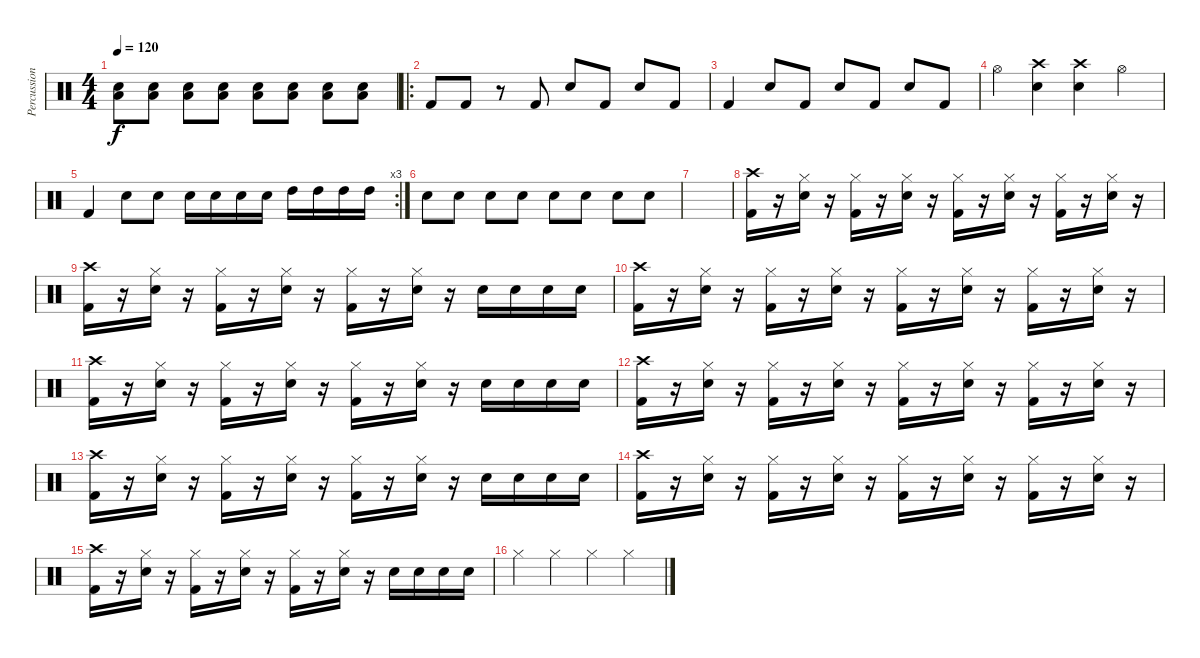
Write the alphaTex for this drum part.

\track ("Percussions" "Percussion") {instrument percussion}
\staff {score}
\articulation defaults
\ts (4 4)
\tempo 120
\clef neutral
\ks c
("Electric Snare (hit)" "Low Tom (hit)").8{dy f} ("Electric Snare (hit)" "Low Tom (hit)").8 ("Electric Snare (hit)" "Low Tom (hit)").8 ("Electric Snare (hit)" "Low Tom (hit)").8 ("Electric Snare (hit)" "Low Tom (hit)").8 ("Electric Snare (hit)" "Low Tom (hit)").8 ("Electric Snare (hit)" "Low Tom (hit)").8 ("Electric Snare (hit)" "Low Tom (hit)").8 |
\ro "Kick (hit) 2".8 "Kick (hit) 2".8
r.8 "Kick (hit) 2".8 "Electric Snare (hit)".8 "Kick (hit) 2".8 "Electric Snare (hit)".8 "Kick (hit) 2".8 |
"Kick (hit) 2".4 "Electric Snare (hit)".8 "Kick (hit) 2".8 "Electric Snare (hit)".8 "Kick (hit) 2".8 "Electric Snare (hit)".8 "Kick (hit) 2".8 |
"Hi-Hat (open)".4 ("Crash high (hit)" "Electric Snare (hit)").4 ("Crash high (hit)" "Electric Snare (hit)").4 "Hi-Hat (open)".4 |
\rc 3 "Kick (hit) 2".4 "Electric Snare (hit)".8 "Electric Snare (hit)".8 "Electric Snare (hit)".16 "Electric Snare (hit)".16 "Electric Snare (hit)".16 "Electric Snare (hit)".16 "High Tom (hit)".16 "High Tom (hit)".16 "High Tom (hit)".16 "High Tom (hit)".16
|
"Electric Snare (hit)".8 "Electric Snare (hit)".8 "Electric Snare (hit)".8 "Electric Snare (hit)".8 "Electric Snare (hit)".8 "Electric Snare (hit)".8 "Electric Snare (hit)".8 "Electric Snare (hit)".8 |
|
("Crash high (hit)" "Kick (hit) 2").16 r.16 ("Hi-Hat (closed)" "Electric Snare (hit)").16 r.16 ("Hi-Hat (closed)" "Kick (hit) 2").16 r.16 ("Hi-Hat (closed)" "Electric Snare (hit)").16 r.16 ("Hi-Hat (closed)" "Kick (hit) 2").16 r.16 ("Hi-Hat (closed)" "Electric Snare (hit)").16 r.16 ("Hi-Hat (closed)" "Kick (hit) 2").16 r.16 ("Hi-Hat (closed)" "Electric Snare (hit)").16 r.16 |
("Crash high (hit)" "Kick (hit) 2").16 r.16 ("Hi-Hat (closed)" "Electric Snare (hit)").16 r.16 ("Hi-Hat (closed)" "Kick (hit) 2").16 r.16 ("Hi-Hat (closed)" "Electric Snare (hit)").16 r.16 ("Hi-Hat (closed)" "Kick (hit) 2").16 r.16 ("Hi-Hat (closed)" "Electric Snare (hit)").16 r.16 "Electric Snare (hit)".16 "Electric Snare (hit)".16 "Electric Snare (hit)".16 "Electric Snare (hit)".16 |
("Crash high (hit)" "Kick (hit) 2").16 r.16 ("Hi-Hat (closed)" "Electric Snare (hit)").16 r.16 ("Hi-Hat (closed)" "Kick (hit) 2").16 r.16 ("Hi-Hat (closed)" "Electric Snare (hit)").16 r.16 ("Hi-Hat (closed)" "Kick (hit) 2").16 r.16 ("Hi-Hat (closed)" "Electric Snare (hit)").16 r.16 ("Hi-Hat (closed)" "Kick (hit) 2").16 r.16 ("Hi-Hat (closed)" "Electric Snare (hit)").16 r.16 |
("Crash high (hit)" "Kick (hit) 2").16 r.16 ("Hi-Hat (closed)" "Electric Snare (hit)").16 r.16 ("Hi-Hat (closed)" "Kick (hit) 2").16 r.16 ("Hi-Hat (closed)" "Electric Snare (hit)").16 r.16 ("Hi-Hat (closed)" "Kick (hit) 2").16 r.16 ("Hi-Hat (closed)" "Electric Snare (hit)").16 r.16 "Electric Snare (hit)".16 "Electric Snare (hit)".16 "Electric Snare (hit)".16 "Electric Snare (hit)".16 |
("Crash high (hit)" "Kick (hit) 2").16 r.16 ("Hi-Hat (closed)" "Electric Snare (hit)").16 r.16 ("Hi-Hat (closed)" "Kick (hit) 2").16 r.16 ("Hi-Hat (closed)" "Electric Snare (hit)").16 r.16 ("Hi-Hat (closed)" "Kick (hit) 2").16 r.16 ("Hi-Hat (closed)" "Electric Snare (hit)").16 r.16 ("Hi-Hat (closed)" "Kick (hit) 2").16 r.16 ("Hi-Hat (closed)" "Electric Snare (hit)").16 r.16 |
("Crash high (hit)" "Kick (hit) 2").16 r.16 ("Hi-Hat (closed)" "Electric Snare (hit)").16 r.16 ("Hi-Hat (closed)" "Kick (hit) 2").16 r.16 ("Hi-Hat (closed)" "Electric Snare (hit)").16 r.16 ("Hi-Hat (closed)" "Kick (hit) 2").16 r.16 ("Hi-Hat (closed)" "Electric Snare (hit)").16 r.16 "Electric Snare (hit)".16 "Electric Snare (hit)".16 "Electric Snare (hit)".16 "Electric Snare (hit)".16 |
("Crash high (hit)" "Kick (hit) 2").16 r.16 ("Hi-Hat (closed)" "Electric Snare (hit)").16 r.16 ("Hi-Hat (closed)" "Kick (hit) 2").16 r.16 ("Hi-Hat (closed)" "Electric Snare (hit)").16 r.16 ("Hi-Hat (closed)" "Kick (hit) 2").16 r.16 ("Hi-Hat (closed)" "Electric Snare (hit)").16 r.16 ("Hi-Hat (closed)" "Kick (hit) 2").16 r.16 ("Hi-Hat (closed)" "Electric Snare (hit)").16 r.16 |
("Crash high (hit)" "Kick (hit) 2").16 r.16 ("Hi-Hat (closed)" "Electric Snare (hit)").16 r.16 ("Hi-Hat (closed)" "Kick (hit) 2").16 r.16 ("Hi-Hat (closed)" "Electric Snare (hit)").16 r.16 ("Hi-Hat (closed)" "Kick (hit) 2").16 r.16 ("Hi-Hat (closed)" "Electric Snare (hit)").16 r.16 "Electric Snare (hit)".16 "Electric Snare (hit)".16 "Electric Snare (hit)".16 "Electric Snare (hit)".16 |
"Hi-Hat (closed)".4 "Hi-Hat (closed)".4 "Hi-Hat (closed)".4 "Hi-Hat (closed)".4
